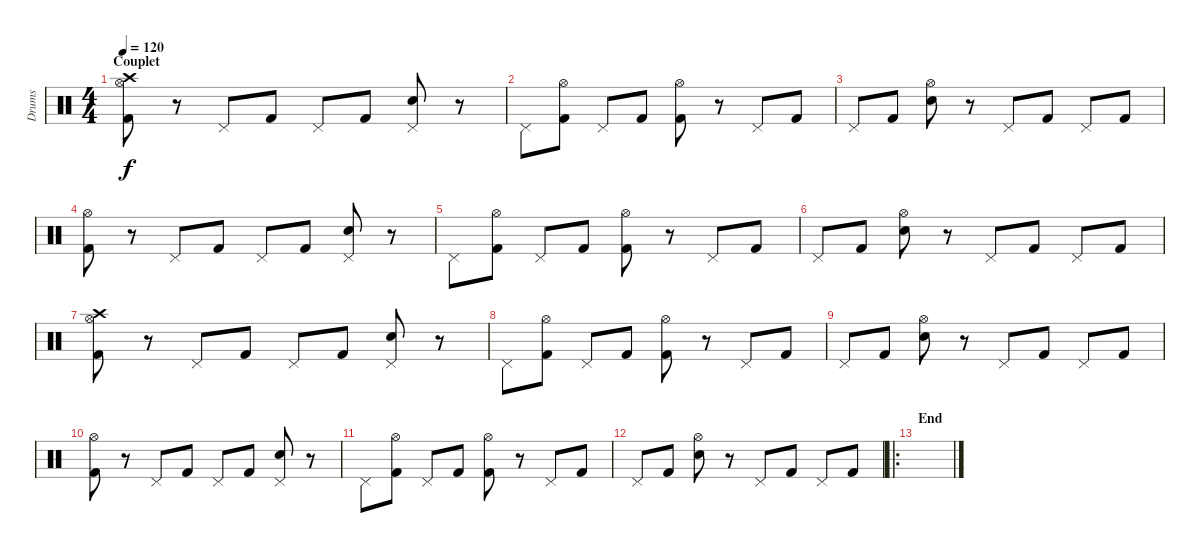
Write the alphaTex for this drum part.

\track ("Drums" "Drums") {instrument percussion}
\staff {score}
\articulation defaults
\ts (4 4)
\section ("" "Couplet")
\tempo 120
\clef neutral
\ks c
("Crash high (hit)" "Hi-Hat (open)" "Kick (hit) 2").8{dy f} r.8 "Pedal Hi-Hat (hit)".8 "Kick (hit) 2".8 "Pedal Hi-Hat (hit)".8 "Kick (hit) 2".8 ("Pedal Hi-Hat (hit)" "Snare (hit) 2").8 r.8 |
"Pedal Hi-Hat (hit)".8 ("Hi-Hat (open)" "Kick (hit) 2").8 "Pedal Hi-Hat (hit)".8 "Kick (hit) 2".8 ("Hi-Hat (open)" "Kick (hit) 2").8 r.8 "Pedal Hi-Hat (hit)".8 "Kick (hit) 2".8 |
"Pedal Hi-Hat (hit)".8 "Kick (hit) 2".8 ("Hi-Hat (open)" "Snare (hit) 2").8 r.8 "Pedal Hi-Hat (hit)".8 "Kick (hit) 2".8 "Pedal Hi-Hat (hit)".8 "Kick (hit) 2".8 |
("Hi-Hat (open)" "Kick (hit) 2").8 r.8 "Pedal Hi-Hat (hit)".8 "Kick (hit) 2".8 "Pedal Hi-Hat (hit)".8 "Kick (hit) 2".8 ("Pedal Hi-Hat (hit)" "Snare (hit) 2").8 r.8 |
"Pedal Hi-Hat (hit)".8 ("Hi-Hat (open)" "Kick (hit) 2").8 "Pedal Hi-Hat (hit)".8 "Kick (hit) 2".8 ("Hi-Hat (open)" "Kick (hit) 2").8 r.8 "Pedal Hi-Hat (hit)".8 "Kick (hit) 2".8 |
"Pedal Hi-Hat (hit)".8 "Kick (hit) 2".8 ("Hi-Hat (open)" "Snare (hit) 2").8 r.8 "Pedal Hi-Hat (hit)".8 "Kick (hit) 2".8 "Pedal Hi-Hat (hit)".8 "Kick (hit) 2".8 |
("Crash high (hit)" "Hi-Hat (open)" "Kick (hit) 2").8 r.8 "Pedal Hi-Hat (hit)".8 "Kick (hit) 2".8 "Pedal Hi-Hat (hit)".8 "Kick (hit) 2".8 ("Pedal Hi-Hat (hit)" "Snare (hit) 2").8 r.8 |
"Pedal Hi-Hat (hit)".8 ("Hi-Hat (open)" "Kick (hit) 2").8 "Pedal Hi-Hat (hit)".8 "Kick (hit) 2".8 ("Hi-Hat (open)" "Kick (hit) 2").8 r.8 "Pedal Hi-Hat (hit)".8 "Kick (hit) 2".8 |
"Pedal Hi-Hat (hit)".8 "Kick (hit) 2".8 ("Hi-Hat (open)" "Snare (hit) 2").8 r.8 "Pedal Hi-Hat (hit)".8 "Kick (hit) 2".8 "Pedal Hi-Hat (hit)".8 "Kick (hit) 2".8 |
("Hi-Hat (open)" "Kick (hit) 2").8 r.8 "Pedal Hi-Hat (hit)".8 "Kick (hit) 2".8 "Pedal Hi-Hat (hit)".8 "Kick (hit) 2".8 ("Pedal Hi-Hat (hit)" "Snare (hit) 2").8 r.8 |
"Pedal Hi-Hat (hit)".8 ("Hi-Hat (open)" "Kick (hit) 2").8 "Pedal Hi-Hat (hit)".8 "Kick (hit) 2".8 ("Hi-Hat (open)" "Kick (hit) 2").8 r.8 "Pedal Hi-Hat (hit)".8 "Kick (hit) 2".8 |
"Pedal Hi-Hat (hit)".8 "Kick (hit) 2".8 ("Hi-Hat (open)" "Snare (hit) 2").8 r.8 "Pedal Hi-Hat (hit)".8 "Kick (hit) 2".8 "Pedal Hi-Hat (hit)".8 "Kick (hit) 2".8 |
\ro
\section ("" "End")
